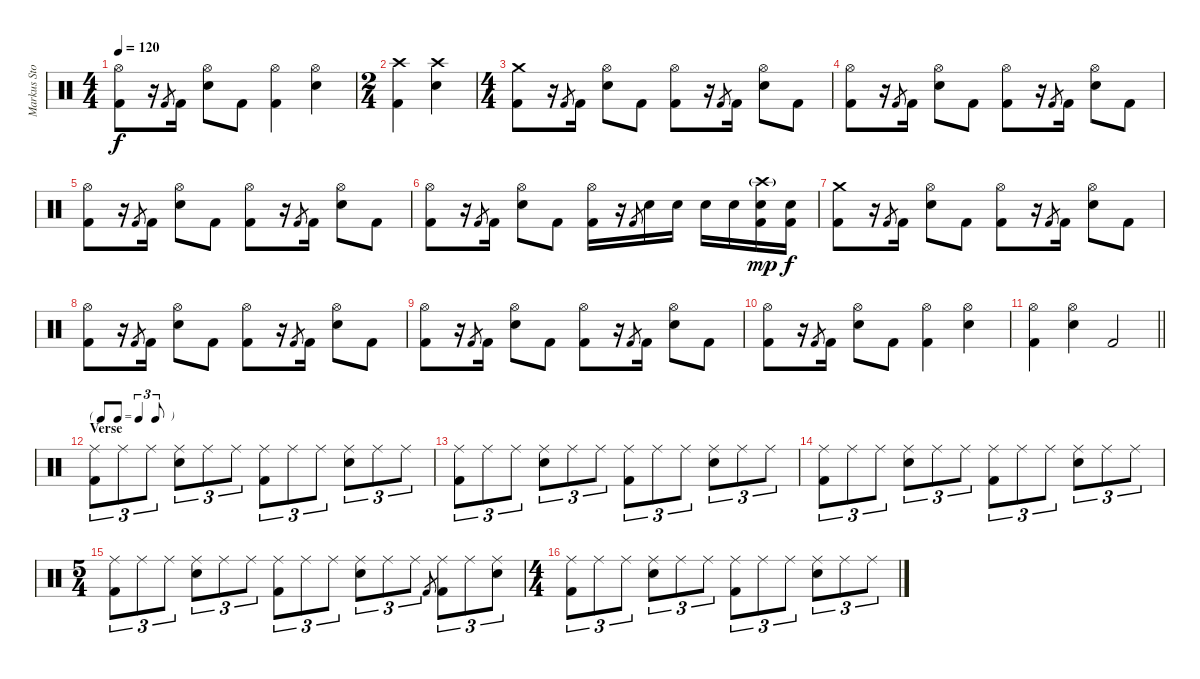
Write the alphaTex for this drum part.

\track ("Markus Stock" "Markus Sto") {instrument percussion}
\staff {score}
\articulation defaults
\ts (4 4)
\tempo 120
\clef neutral
\ks c
("Hi-Hat (open)" "Kick (hit) 2").8{dy f} r.16 "Kick (hit) 2".8{gr} "Kick (hit) 2".16 ("Hi-Hat (open)" "Snare (hit) 2").8 "Kick (hit) 2".8 ("Hi-Hat (open)" "Kick (hit) 2").4 ("Hi-Hat (open)" "Snare (hit) 2").4 |
\ts (2 4)
("Crash high (hit)" "Kick (hit) 2").4 ("Crash high (hit)" "Snare (hit) 2").4 |
\ts (4 4)
("Crash medium (hit)" "Kick (hit) 2").8 r.16 "Kick (hit) 2".8{gr} "Kick (hit) 2".16 ("Hi-Hat (open)" "Snare (hit) 2").8 "Kick (hit) 2".8 ("Hi-Hat (open)" "Kick (hit) 2").8 r.16 "Kick (hit) 2".8{gr} "Kick (hit) 2".16 ("Hi-Hat (open)" "Snare (hit) 2").8 "Kick (hit) 2".8 |
("Hi-Hat (open)" "Kick (hit) 2").8 r.16 "Kick (hit) 2".8{gr} "Kick (hit) 2".16 ("Hi-Hat (open)" "Snare (hit) 2").8 "Kick (hit) 2".8 ("Hi-Hat (open)" "Kick (hit) 2").8 r.16 "Kick (hit) 2".8{gr} "Kick (hit) 2".16 ("Hi-Hat (open)" "Snare (hit) 2").8 "Kick (hit) 2".8 |
("Hi-Hat (open)" "Kick (hit) 2").8 r.16 "Kick (hit) 2".8{gr} "Kick (hit) 2".16 ("Hi-Hat (open)" "Snare (hit) 2").8 "Kick (hit) 2".8 ("Hi-Hat (open)" "Kick (hit) 2").8 r.16 "Kick (hit) 2".8{gr} "Kick (hit) 2".16 ("Hi-Hat (open)" "Snare (hit) 2").8 "Kick (hit) 2".8 |
("Hi-Hat (open)" "Kick (hit) 2").8 r.16 "Kick (hit) 2".8{gr} "Kick (hit) 2".16 ("Hi-Hat (open)" "Snare (hit) 2").8 "Kick (hit) 2".8 ("Hi-Hat (open)" "Kick (hit) 2").16 r.16 "Kick (hit) 2".8{gr} "Snare (hit) 2".16 "Snare (hit) 2".16 "Snare (hit) 2".16 "Snare (hit) 2".16 ("Crash high (hit)"{g} "Snare (hit) 2" "Kick (hit) 2").16{dy mp} ("Snare (hit) 2" "Kick (hit) 2").16{dy f} |
("Crash medium (hit)" "Kick (hit) 2").8 r.16 "Kick (hit) 2".8{gr} "Kick (hit) 2".16 ("Hi-Hat (open)" "Snare (hit) 2").8 "Kick (hit) 2".8 ("Hi-Hat (open)" "Kick (hit) 2").8 r.16 "Kick (hit) 2".8{gr} "Kick (hit) 2".16 ("Hi-Hat (open)" "Snare (hit) 2").8 "Kick (hit) 2".8 |
("Hi-Hat (open)" "Kick (hit) 2").8 r.16 "Kick (hit) 2".8{gr} "Kick (hit) 2".16 ("Hi-Hat (open)" "Snare (hit) 2").8 "Kick (hit) 2".8 ("Hi-Hat (open)" "Kick (hit) 2").8 r.16 "Kick (hit) 2".8{gr} "Kick (hit) 2".16 ("Hi-Hat (open)" "Snare (hit) 2").8 "Kick (hit) 2".8 |
("Hi-Hat (open)" "Kick (hit) 2").8 r.16 "Kick (hit) 2".8{gr} "Kick (hit) 2".16 ("Hi-Hat (open)" "Snare (hit) 2").8 "Kick (hit) 2".8 ("Hi-Hat (open)" "Kick (hit) 2").8 r.16 "Kick (hit) 2".8{gr} "Kick (hit) 2".16 ("Hi-Hat (open)" "Snare (hit) 2").8 "Kick (hit) 2".8 |
("Hi-Hat (open)" "Kick (hit) 2").8 r.16 "Kick (hit) 2".8{gr} "Kick (hit) 2".16 ("Hi-Hat (open)" "Snare (hit) 2").8 "Kick (hit) 2".8 ("Hi-Hat (open)" "Kick (hit) 2").4 ("Hi-Hat (open)" "Snare (hit) 2").4 |
\barLineRight lightlight
("Hi-Hat (open)" "Kick (hit) 2").4 ("Hi-Hat (open)" "Snare (hit) 2").4 "Kick (hit) 2".2 |
\tf triplet8th
\section ("" "Verse")
("Ride (middle)" "Kick (hit) 2").8{tu (3 2)} "Ride (middle)".8{tu (3 2)} "Ride (middle)".8{tu (3 2)} ("Ride (middle)" "Snare (hit) 2").8{tu (3 2)} "Ride (middle)".8{tu (3 2)} "Ride (middle)".8{tu (3 2)} ("Ride (middle)" "Kick (hit) 2").8{tu (3 2)} "Ride (middle)".8{tu (3 2)} "Ride (middle)".8{tu (3 2)} ("Ride (middle)" "Snare (hit) 2").8{tu (3 2)} "Ride (middle)".8{tu (3 2)} "Ride (middle)".8{tu (3 2)} |
("Ride (middle)" "Kick (hit) 2").8{tu (3 2)} "Ride (middle)".8{tu (3 2)} "Ride (middle)".8{tu (3 2)} ("Ride (middle)" "Snare (hit) 2").8{tu (3 2)} "Ride (middle)".8{tu (3 2)} "Ride (middle)".8{tu (3 2)} ("Ride (middle)" "Kick (hit) 2").8{tu (3 2)} "Ride (middle)".8{tu (3 2)} "Ride (middle)".8{tu (3 2)} ("Ride (middle)" "Snare (hit) 2").8{tu (3 2)} "Ride (middle)".8{tu (3 2)} "Ride (middle)".8{tu (3 2)} |
("Ride (middle)" "Kick (hit) 2").8{tu (3 2)} "Ride (middle)".8{tu (3 2)} "Ride (middle)".8{tu (3 2)} ("Ride (middle)" "Snare (hit) 2").8{tu (3 2)} "Ride (middle)".8{tu (3 2)} "Ride (middle)".8{tu (3 2)} ("Ride (middle)" "Kick (hit) 2").8{tu (3 2)} "Ride (middle)".8{tu (3 2)} "Ride (middle)".8{tu (3 2)} ("Ride (middle)" "Snare (hit) 2").8{tu (3 2)} "Ride (middle)".8{tu (3 2)} "Ride (middle)".8{tu (3 2)} |
\ts (5 4)
("Ride (middle)" "Kick (hit) 2").8{tu (3 2)} "Ride (middle)".8{tu (3 2)} "Ride (middle)".8{tu (3 2)} ("Ride (middle)" "Snare (hit) 2").8{tu (3 2)} "Ride (middle)".8{tu (3 2)} "Ride (middle)".8{tu (3 2)} ("Ride (middle)" "Kick (hit) 2").8{tu (3 2)} "Ride (middle)".8{tu (3 2)} "Ride (middle)".8{tu (3 2)} ("Ride (middle)" "Snare (hit) 2").8{tu (3 2)} "Ride (middle)".8{tu (3 2)} "Ride (middle)".8{tu (3 2)} "Kick (hit) 2".8{gr} ("Ride (middle)" "Kick (hit) 2").8{tu (3 2)} "Ride (middle)".8{tu (3 2)} ("Ride (middle)" "Snare (hit) 2").8{tu (3 2)} |
\ts (4 4)
("Ride (middle)" "Kick (hit) 2").8{tu (3 2)} "Ride (middle)".8{tu (3 2)} "Ride (middle)".8{tu (3 2)} ("Ride (middle)" "Snare (hit) 2").8{tu (3 2)} "Ride (middle)".8{tu (3 2)} "Ride (middle)".8{tu (3 2)} ("Ride (middle)" "Kick (hit) 2").8{tu (3 2)} "Ride (middle)".8{tu (3 2)} "Ride (middle)".8{tu (3 2)} ("Ride (middle)" "Snare (hit) 2").8{tu (3 2)} "Ride (middle)".8{tu (3 2)} "Ride (middle)".8{tu (3 2)}
